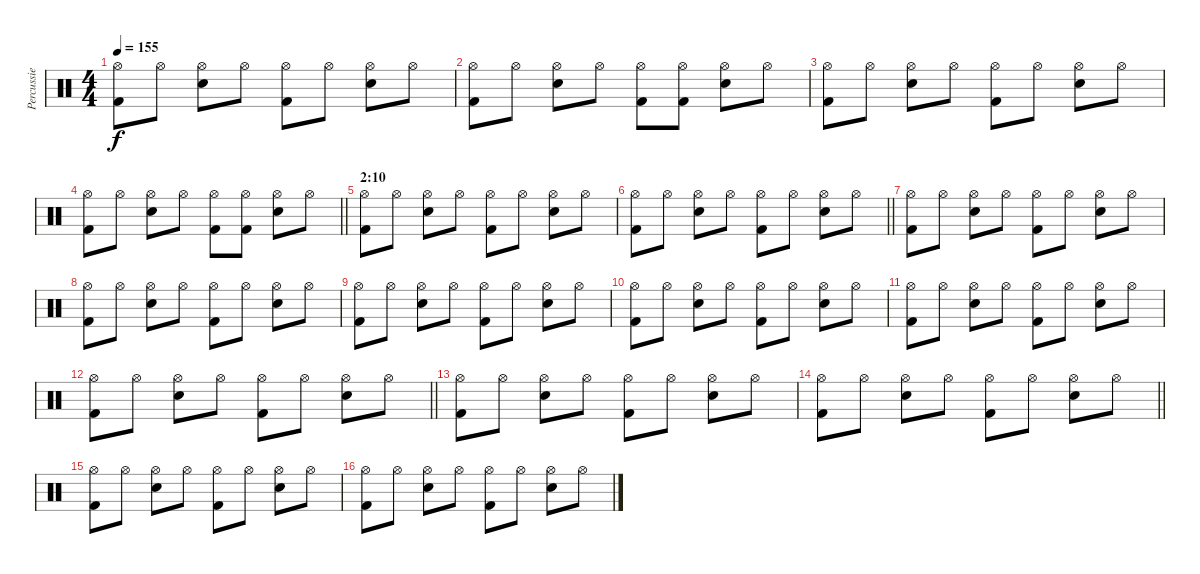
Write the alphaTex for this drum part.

\track ("Percussie" "Percussie") {instrument percussion}
\staff {score}
\articulation defaults
\ts (4 4)
\tempo 155
\clef neutral
\ks c
("Hi-Hat (open)" "Kick (hit) 2").8{dy f} "Hi-Hat (open)".8 ("Hi-Hat (open)" "Snare (hit) 2").8 "Hi-Hat (open)".8 ("Hi-Hat (open)" "Kick (hit) 2").8 "Hi-Hat (open)".8 ("Hi-Hat (open)" "Snare (hit) 2").8 "Hi-Hat (open)".8 |
("Hi-Hat (open)" "Kick (hit) 2").8 "Hi-Hat (open)".8 ("Hi-Hat (open)" "Snare (hit) 2").8 "Hi-Hat (open)".8 ("Hi-Hat (open)" "Kick (hit) 2").8 ("Hi-Hat (open)" "Kick (hit) 2").8 ("Hi-Hat (open)" "Snare (hit) 2").8 "Hi-Hat (open)".8 |
("Hi-Hat (open)" "Kick (hit) 2").8 "Hi-Hat (open)".8 ("Hi-Hat (open)" "Snare (hit) 2").8 "Hi-Hat (open)".8 ("Hi-Hat (open)" "Kick (hit) 2").8 "Hi-Hat (open)".8 ("Hi-Hat (open)" "Snare (hit) 2").8 "Hi-Hat (open)".8 |
\barLineRight lightlight
("Hi-Hat (open)" "Kick (hit) 2").8 "Hi-Hat (open)".8 ("Hi-Hat (open)" "Snare (hit) 2").8 "Hi-Hat (open)".8 ("Hi-Hat (open)" "Kick (hit) 2").8 ("Hi-Hat (open)" "Kick (hit) 2").8 ("Hi-Hat (open)" "Snare (hit) 2").8 "Hi-Hat (open)".8 |
\section ("" "2:10")
("Hi-Hat (open)" "Kick (hit) 2").8 "Hi-Hat (open)".8 ("Hi-Hat (open)" "Snare (hit) 2").8 "Hi-Hat (open)".8 ("Hi-Hat (open)" "Kick (hit) 2").8 "Hi-Hat (open)".8 ("Hi-Hat (open)" "Snare (hit) 2").8 "Hi-Hat (open)".8 |
\barLineRight lightlight
("Hi-Hat (open)" "Kick (hit) 2").8 "Hi-Hat (open)".8 ("Hi-Hat (open)" "Snare (hit) 2").8 "Hi-Hat (open)".8 ("Hi-Hat (open)" "Kick (hit) 2").8 "Hi-Hat (open)".8 ("Hi-Hat (open)" "Snare (hit) 2").8 "Hi-Hat (open)".8 |
("Hi-Hat (open)" "Kick (hit) 2").8 "Hi-Hat (open)".8 ("Hi-Hat (open)" "Snare (hit) 2").8 "Hi-Hat (open)".8 ("Hi-Hat (open)" "Kick (hit) 2").8 "Hi-Hat (open)".8 ("Hi-Hat (open)" "Snare (hit) 2").8 "Hi-Hat (open)".8 |
("Hi-Hat (open)" "Kick (hit) 2").8 "Hi-Hat (open)".8 ("Hi-Hat (open)" "Snare (hit) 2").8 "Hi-Hat (open)".8 ("Hi-Hat (open)" "Kick (hit) 2").8 "Hi-Hat (open)".8 ("Hi-Hat (open)" "Snare (hit) 2").8 "Hi-Hat (open)".8 |
("Hi-Hat (open)" "Kick (hit) 2").8 "Hi-Hat (open)".8 ("Hi-Hat (open)" "Snare (hit) 2").8 "Hi-Hat (open)".8 ("Hi-Hat (open)" "Kick (hit) 2").8 "Hi-Hat (open)".8 ("Hi-Hat (open)" "Snare (hit) 2").8 "Hi-Hat (open)".8 |
("Hi-Hat (open)" "Kick (hit) 2").8 "Hi-Hat (open)".8 ("Hi-Hat (open)" "Snare (hit) 2").8 "Hi-Hat (open)".8 ("Hi-Hat (open)" "Kick (hit) 2").8 "Hi-Hat (open)".8 ("Hi-Hat (open)" "Snare (hit) 2").8 "Hi-Hat (open)".8 |
("Hi-Hat (open)" "Kick (hit) 2").8 "Hi-Hat (open)".8 ("Hi-Hat (open)" "Snare (hit) 2").8 "Hi-Hat (open)".8 ("Hi-Hat (open)" "Kick (hit) 2").8 "Hi-Hat (open)".8 ("Hi-Hat (open)" "Snare (hit) 2").8 "Hi-Hat (open)".8 |
\barLineRight lightlight
("Hi-Hat (open)" "Kick (hit) 2").8 "Hi-Hat (open)".8 ("Hi-Hat (open)" "Snare (hit) 2").8 "Hi-Hat (open)".8 ("Hi-Hat (open)" "Kick (hit) 2").8 "Hi-Hat (open)".8 ("Hi-Hat (open)" "Snare (hit) 2").8 "Hi-Hat (open)".8 |
("Hi-Hat (open)" "Kick (hit) 2").8 "Hi-Hat (open)".8 ("Hi-Hat (open)" "Snare (hit) 2").8 "Hi-Hat (open)".8 ("Hi-Hat (open)" "Kick (hit) 2").8 "Hi-Hat (open)".8 ("Hi-Hat (open)" "Snare (hit) 2").8 "Hi-Hat (open)".8 |
\barLineRight lightlight
("Hi-Hat (open)" "Kick (hit) 2").8 "Hi-Hat (open)".8 ("Hi-Hat (open)" "Snare (hit) 2").8 "Hi-Hat (open)".8 ("Hi-Hat (open)" "Kick (hit) 2").8 "Hi-Hat (open)".8 ("Hi-Hat (open)" "Snare (hit) 2").8 "Hi-Hat (open)".8 |
("Hi-Hat (open)" "Kick (hit) 2").8 "Hi-Hat (open)".8 ("Hi-Hat (open)" "Snare (hit) 2").8 "Hi-Hat (open)".8 ("Hi-Hat (open)" "Kick (hit) 2").8 "Hi-Hat (open)".8 ("Hi-Hat (open)" "Snare (hit) 2").8 "Hi-Hat (open)".8 |
("Hi-Hat (open)" "Kick (hit) 2").8 "Hi-Hat (open)".8 ("Hi-Hat (open)" "Snare (hit) 2").8 "Hi-Hat (open)".8 ("Hi-Hat (open)" "Kick (hit) 2").8 "Hi-Hat (open)".8 ("Hi-Hat (open)" "Snare (hit) 2").8 "Hi-Hat (open)".8
